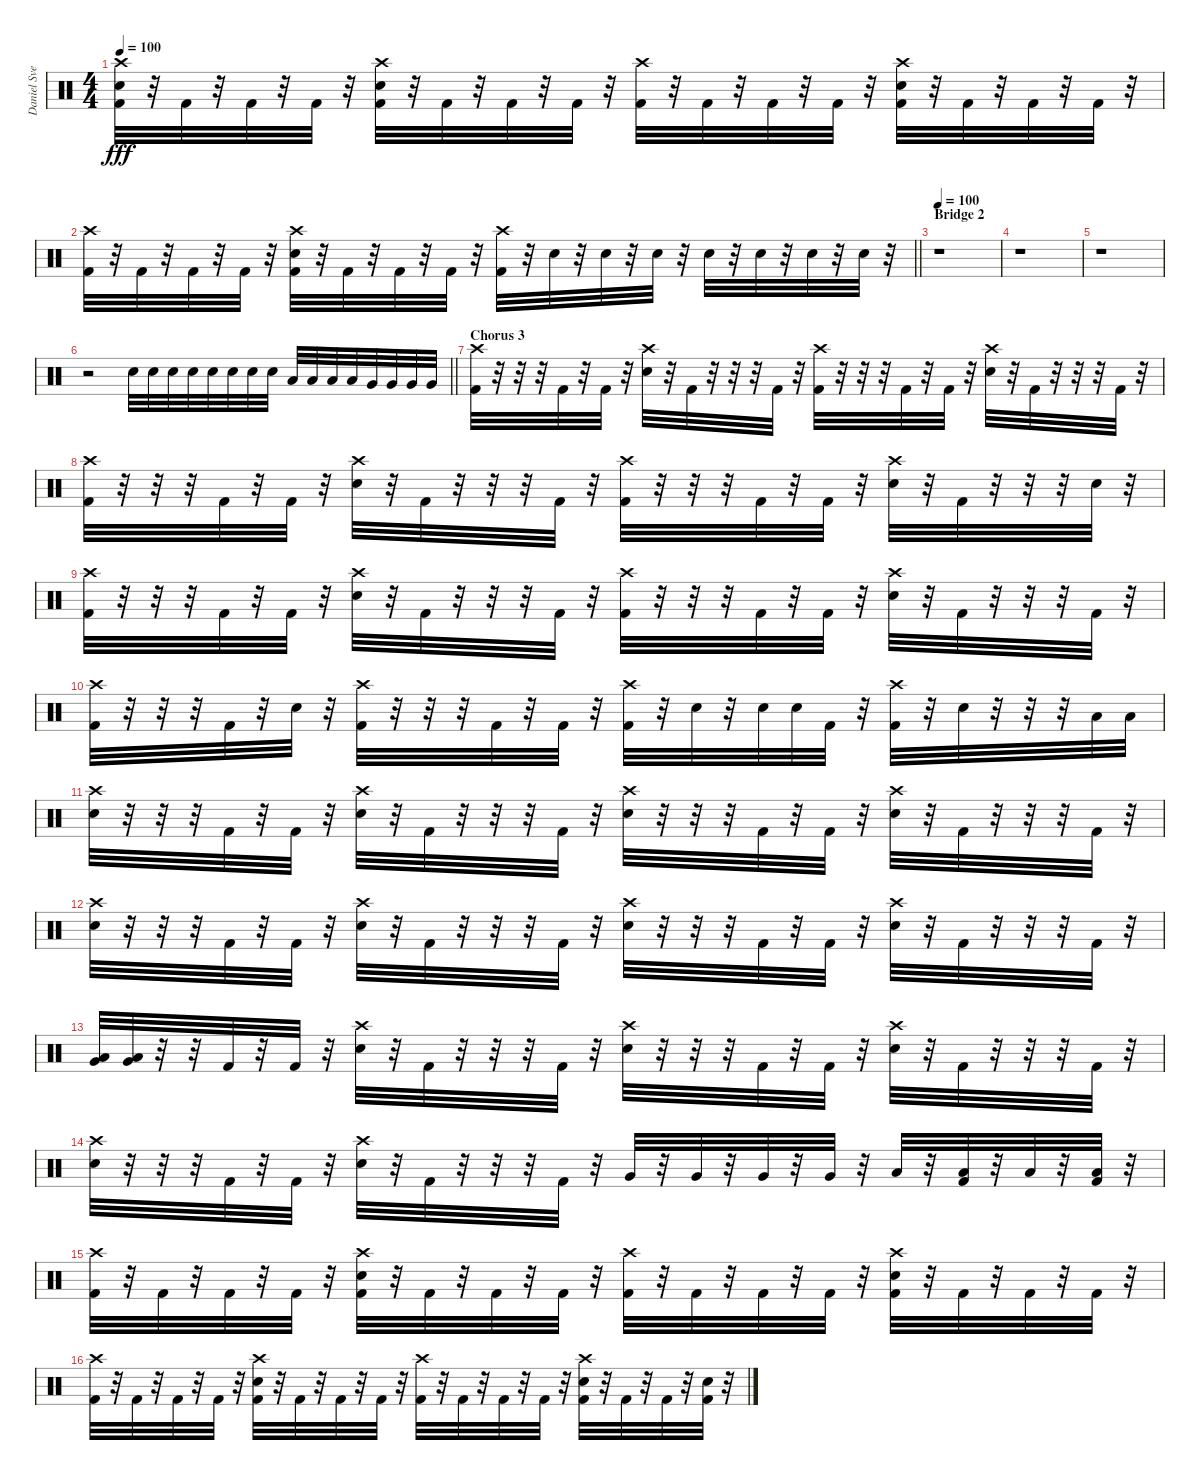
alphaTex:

\track ("Daniel Svensson" "Daniel Sve") {instrument percussion}
\staff {score}
\articulation defaults
\ts (4 4)
\tempo 100
\clef neutral
\ks c
("Crash high (hit)" "Electric Snare (hit)" "Kick (hit) 2").32{dy fff} r.32 "Kick (hit) 2".32 r.32 "Kick (hit) 2".32 r.32 "Kick (hit) 2".32 r.32 ("Crash high (hit)" "Electric Snare (hit)" "Kick (hit) 2").32 r.32 "Kick (hit) 2".32 r.32 "Kick (hit) 2".32 r.32 "Kick (hit) 2".32 r.32 ("Crash high (hit)" "Kick (hit) 2").32 r.32 "Kick (hit) 2".32 r.32 "Kick (hit) 2".32 r.32 "Kick (hit) 2".32 r.32 ("Crash high (hit)" "Electric Snare (hit)" "Kick (hit) 2").32 r.32 "Kick (hit) 2".32 r.32 "Kick (hit) 2".32 r.32 "Kick (hit) 2".32 r.32 |
\barLineRight lightlight
("Crash high (hit)" "Kick (hit) 2").32 r.32 "Kick (hit) 2".32 r.32 "Kick (hit) 2".32 r.32 "Kick (hit) 2".32 r.32 ("Crash high (hit)" "Electric Snare (hit)" "Kick (hit) 2").32 r.32 "Kick (hit) 2".32 r.32 "Kick (hit) 2".32 r.32 "Kick (hit) 2".32 r.32 ("Crash high (hit)" "Kick (hit) 2").32 r.32 "Electric Snare (hit)".32 r.32 "Electric Snare (hit)".32 r.32 "Electric Snare (hit)".32 r.32 "Electric Snare (hit)".32 r.32 "Electric Snare (hit)".32 r.32 "Electric Snare (hit)".32 r.32 "Electric Snare (hit)".32 r.32 |
\section ("" "Bridge 2")
\tempo 100
r.1 |
r.1 |
r.1 |
\barLineRight lightlight
r.2 "Electric Snare (hit)".32 "Electric Snare (hit)".32 "Electric Snare (hit)".32 "Electric Snare (hit)".32 "Electric Snare (hit)".32 "Electric Snare (hit)".32 "Electric Snare (hit)".32 "Electric Snare (hit)".32 "Low Tom (hit)".32 "Low Tom (hit)".32 "Low Tom (hit)".32 "Low Tom (hit)".32 "Very Low Tom (hit)".32 "Very Low Tom (hit)".32 "Very Low Tom (hit)".32 "Very Low Tom (hit)".32 |
\section ("" "Chorus 3")
("Crash high (hit)" "Kick (hit) 2").32 r.32 r.32 r.32 "Kick (hit) 2".32 r.32 "Kick (hit) 2".32 r.32 ("Crash high (hit)" "Electric Snare (hit)").32 r.32 "Kick (hit) 2".32 r.32 r.32 r.32 "Kick (hit) 2".32 r.32 ("Crash high (hit)" "Kick (hit) 2").32 r.32 r.32 r.32 "Kick (hit) 2".32 r.32 "Kick (hit) 2".32 r.32 ("Crash high (hit)" "Electric Snare (hit)").32 r.32 "Kick (hit) 2".32 r.32 r.32 r.32 "Kick (hit) 2".32 r.32 |
("Crash high (hit)" "Kick (hit) 2").32 r.32 r.32 r.32 "Kick (hit) 2".32 r.32 "Kick (hit) 2".32 r.32 ("Crash high (hit)" "Electric Snare (hit)").32 r.32 "Kick (hit) 2".32 r.32 r.32 r.32 "Kick (hit) 2".32 r.32 ("Crash high (hit)" "Kick (hit) 2").32 r.32 r.32 r.32 "Kick (hit) 2".32 r.32 "Kick (hit) 2".32 r.32 ("Crash high (hit)" "Electric Snare (hit)").32 r.32 "Kick (hit) 2".32 r.32 r.32 r.32 "Electric Snare (hit)".32 r.32 |
("Crash high (hit)" "Kick (hit) 2").32 r.32 r.32 r.32 "Kick (hit) 2".32 r.32 "Kick (hit) 2".32 r.32 ("Crash high (hit)" "Electric Snare (hit)").32 r.32 "Kick (hit) 2".32 r.32 r.32 r.32 "Kick (hit) 2".32 r.32 ("Crash high (hit)" "Kick (hit) 2").32 r.32 r.32 r.32 "Kick (hit) 2".32 r.32 "Kick (hit) 2".32 r.32 ("Crash high (hit)" "Electric Snare (hit)").32 r.32 "Kick (hit) 2".32 r.32 r.32 r.32 "Kick (hit) 2".32 r.32 |
("Crash high (hit)" "Kick (hit) 2").32 r.32 r.32 r.32 "Kick (hit) 2".32 r.32 "Electric Snare (hit)".32 r.32 ("Crash high (hit)" "Kick (hit) 2").32 r.32 r.32 r.32 "Kick (hit) 2".32 r.32 "Kick (hit) 2".32 r.32 ("Crash high (hit)" "Kick (hit) 2").32 r.32 "Electric Snare (hit)".32 r.32 "Electric Snare (hit)".32 "Electric Snare (hit)".32 "Kick (hit) 2".32 r.32 ("Crash high (hit)" "Kick (hit) 2").32 r.32 "Electric Snare (hit)".32 r.32 r.32 r.32 "Low Tom (hit)".32 "Low Tom (hit)".32 |
("Crash high (hit)" "Electric Snare (hit)").32 r.32 r.32 r.32 "Kick (hit) 2".32 r.32 "Kick (hit) 2".32 r.32 ("Crash high (hit)" "Electric Snare (hit)").32 r.32 "Kick (hit) 2".32 r.32 r.32 r.32 "Kick (hit) 2".32 r.32 ("Crash high (hit)" "Electric Snare (hit)").32 r.32 r.32 r.32 "Kick (hit) 2".32 r.32 "Kick (hit) 2".32 r.32 ("Crash high (hit)" "Electric Snare (hit)").32 r.32 "Kick (hit) 2".32 r.32 r.32 r.32 "Kick (hit) 2".32 r.32 |
("Crash high (hit)" "Electric Snare (hit)").32 r.32 r.32 r.32 "Kick (hit) 2".32 r.32 "Kick (hit) 2".32 r.32 ("Crash high (hit)" "Electric Snare (hit)").32 r.32 "Kick (hit) 2".32 r.32 r.32 r.32 "Kick (hit) 2".32 r.32 ("Crash high (hit)" "Electric Snare (hit)").32 r.32 r.32 r.32 "Kick (hit) 2".32 r.32 "Kick (hit) 2".32 r.32 ("Crash high (hit)" "Electric Snare (hit)").32 r.32 "Kick (hit) 2".32 r.32 r.32 r.32 "Kick (hit) 2".32 r.32 |
("Very Low Tom (hit)" "Low Floor Tom (hit)").32 ("Very Low Tom (hit)" "Low Floor Tom (hit)").32 r.32 r.32 "Kick (hit) 2".32 r.32 "Kick (hit) 2".32 r.32 ("Crash high (hit)" "Electric Snare (hit)").32 r.32 "Kick (hit) 2".32 r.32 r.32 r.32 "Kick (hit) 2".32 r.32 ("Crash high (hit)" "Electric Snare (hit)").32 r.32 r.32 r.32 "Kick (hit) 2".32 r.32 "Kick (hit) 2".32 r.32 ("Crash high (hit)" "Electric Snare (hit)").32 r.32 "Kick (hit) 2".32 r.32 r.32 r.32 "Kick (hit) 2".32 r.32 |
("Crash high (hit)" "Electric Snare (hit)").32 r.32 r.32 r.32 "Kick (hit) 2".32 r.32 "Kick (hit) 2".32 r.32 ("Crash high (hit)" "Electric Snare (hit)").32 r.32 "Kick (hit) 2".32 r.32 r.32 r.32 "Kick (hit) 2".32 r.32 "Very Low Tom (hit)".32 r.32 "Very Low Tom (hit)".32 r.32 "Very Low Tom (hit)".32 r.32 "Very Low Tom (hit)".32 r.32 "Low Tom (hit)".32 r.32 ("Low Tom (hit)" "Kick (hit) 2").32 r.32 "Low Tom (hit)".32 r.32 ("Low Tom (hit)" "Kick (hit) 2").32 r.32 |
("Crash high (hit)" "Kick (hit) 2").32 r.32 "Kick (hit) 2".32 r.32 "Kick (hit) 2".32 r.32 "Kick (hit) 2".32 r.32 ("Crash high (hit)" "Electric Snare (hit)" "Kick (hit) 2").32 r.32 "Kick (hit) 2".32 r.32 "Kick (hit) 2".32 r.32 "Kick (hit) 2".32 r.32 ("Crash high (hit)" "Kick (hit) 2").32 r.32 "Kick (hit) 2".32 r.32 "Kick (hit) 2".32 r.32 "Kick (hit) 2".32 r.32 ("Crash high (hit)" "Electric Snare (hit)" "Kick (hit) 2").32 r.32 "Kick (hit) 2".32 r.32 "Kick (hit) 2".32 r.32 "Kick (hit) 2".32 r.32 |
("Crash high (hit)" "Kick (hit) 2").32 r.32 "Kick (hit) 2".32 r.32 "Kick (hit) 2".32 r.32 "Kick (hit) 2".32 r.32 ("Crash high (hit)" "Electric Snare (hit)" "Kick (hit) 2").32 r.32 "Kick (hit) 2".32 r.32 "Kick (hit) 2".32 r.32 "Kick (hit) 2".32 r.32 ("Crash high (hit)" "Kick (hit) 2").32 r.32 "Kick (hit) 2".32 r.32 "Kick (hit) 2".32 r.32 "Kick (hit) 2".32 r.32 ("Crash high (hit)" "Electric Snare (hit)" "Kick (hit) 2").32 r.32 "Kick (hit) 2".32 r.32 "Kick (hit) 2".32 r.32 ("Electric Snare (hit)" "Kick (hit) 2").32 r.32
